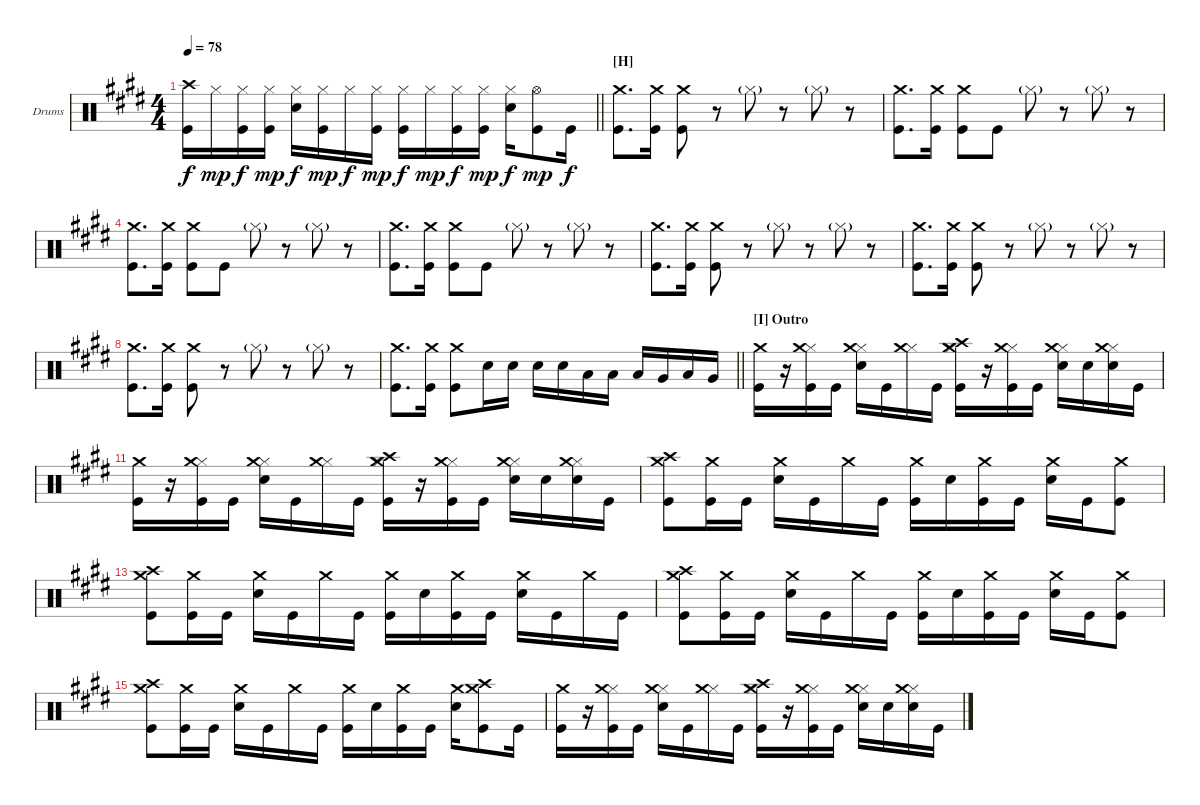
\bracketExtendMode nobrackets
\firstSystemTrackNameOrientation horizontal
\otherSystemsTrackNameOrientation horizontal
\defaultBarNumberDisplay FirstOfSystem
\track ("Drumkit" "Drums") {instrument percussion}
\staff {score}
\articulation defaults
\ts (4 4)
\tempo 78
\clef neutral
\barLineRight lightlight
\ks c#minor
("Crash high (hit)" "Kick (hit)").16{dy f} "Hi-Hat (closed)".16{dy mp} ("Hi-Hat (closed)" "Kick (hit)").16{dy f} ("Hi-Hat (closed)" "Kick (hit)").16{dy mp} ("Hi-Hat (closed)" "Snare (hit) 2").16{dy f} ("Hi-Hat (closed)" "Kick (hit)").16{dy mp} "Hi-Hat (closed)".16{dy f} ("Hi-Hat (closed)" "Kick (hit)").16{dy mp} ("Hi-Hat (closed)" "Kick (hit)").16{dy f} "Hi-Hat (closed)".16{dy mp} ("Hi-Hat (closed)" "Kick (hit)").16{dy f} ("Hi-Hat (closed)" "Kick (hit)").16{dy mp} ("Hi-Hat (closed)" "Snare (hit) 2").16{dy f} ("Hi-Hat (open)" "Kick (hit)").8{dy mp} "Kick (hit)".16{dy f} |
\section ("H" "")
("Crash medium (hit)" "Kick (hit)").8{d} ("Crash medium (hit)" "Kick (hit)").16 ("Crash medium (hit)" "Kick (hit)").8 r.8 "Hi-Hat (closed)"{g}.8 r.8 "Hi-Hat (closed)"{g}.8 r.8 |
("Crash medium (hit)" "Kick (hit)").8{d} ("Crash medium (hit)" "Kick (hit)").16 ("Crash medium (hit)" "Kick (hit)").8 "Kick (hit)".8 "Hi-Hat (closed)"{g}.8 r.8 "Hi-Hat (closed)"{g}.8 r.8 |
("Crash medium (hit)" "Kick (hit)").8{d} ("Crash medium (hit)" "Kick (hit)").16 ("Crash medium (hit)" "Kick (hit)").8 "Kick (hit)".8 "Hi-Hat (closed)"{g}.8 r.8 "Hi-Hat (closed)"{g}.8 r.8 |
("Crash medium (hit)" "Kick (hit)").8{d} ("Crash medium (hit)" "Kick (hit)").16 ("Crash medium (hit)" "Kick (hit)").8 "Kick (hit)".8 "Hi-Hat (closed)"{g}.8 r.8 "Hi-Hat (closed)"{g}.8 r.8 |
("Crash medium (hit)" "Kick (hit)").8{d} ("Crash medium (hit)" "Kick (hit)").16 ("Crash medium (hit)" "Kick (hit)").8 r.8 "Hi-Hat (closed)"{g}.8 r.8 "Hi-Hat (closed)"{g}.8 r.8 |
("Crash medium (hit)" "Kick (hit)").8{d} ("Crash medium (hit)" "Kick (hit)").16 ("Crash medium (hit)" "Kick (hit)").8 r.8 "Hi-Hat (closed)"{g}.8 r.8 "Hi-Hat (closed)"{g}.8 r.8 |
("Crash medium (hit)" "Kick (hit)").8{d} ("Crash medium (hit)" "Kick (hit)").16 ("Crash medium (hit)" "Kick (hit)").8 r.8 "Hi-Hat (closed)"{g}.8 r.8 "Hi-Hat (closed)"{g}.8 r.8 |
\barLineRight lightlight
("Crash medium (hit)" "Kick (hit)").8{d} ("Crash medium (hit)" "Kick (hit)").16 ("Crash medium (hit)" "Kick (hit)").8 "Snare (hit) 2".16 "Snare (hit) 2".16 "Snare (hit) 2".16 "Snare (hit) 2".16 "Low Tom (hit)".16 "Low Tom (hit)".16 "Low Tom (hit)".16 "Very Low Tom (hit)".16 "Low Tom (hit)".16 "Very Low Tom (hit)".16 |
\section ("I" "Outro")
("Crash medium (hit)" "Kick (hit)").16 r.16 ("Hi-Hat (closed)" "Kick (hit)" "Crash medium (hit)").16 "Kick (hit)".16 ("Hi-Hat (closed)" "Snare (hit) 2" "Crash medium (hit)").16 "Kick (hit)".16 ("Hi-Hat (closed)" "Crash medium (hit)").16 "Kick (hit)".16 ("Hi-Hat (closed)" "Kick (hit)" "Crash high (hit)" "Crash medium (hit)").16 r.16 ("Hi-Hat (closed)" "Kick (hit)" "Crash medium (hit)").16 "Kick (hit)".16 ("Hi-Hat (closed)" "Snare (hit) 2" "Crash medium (hit)").16 "Snare (hit) 2".16 ("Hi-Hat (closed)" "Snare (hit) 2" "Crash medium (hit)").16 "Kick (hit)".16 |
("Crash medium (hit)" "Kick (hit)").16 r.16 ("Hi-Hat (closed)" "Kick (hit)" "Crash medium (hit)").16 "Kick (hit)".16 ("Hi-Hat (closed)" "Snare (hit) 2" "Crash medium (hit)").16 "Kick (hit)".16 ("Hi-Hat (closed)" "Crash medium (hit)").16 "Kick (hit)".16 ("Hi-Hat (closed)" "Kick (hit)" "Crash high (hit)" "Crash medium (hit)").16 r.16 ("Hi-Hat (closed)" "Kick (hit)" "Crash medium (hit)").16 "Kick (hit)".16 ("Hi-Hat (closed)" "Snare (hit) 2" "Crash medium (hit)").16 "Snare (hit) 2".16 ("Hi-Hat (closed)" "Snare (hit) 2" "Crash medium (hit)").16 "Kick (hit)".16 |
("Crash medium (hit)" "Crash high (hit)" "Kick (hit)").8 ("Crash medium (hit)" "Kick (hit)").16 "Kick (hit)".16 ("Crash medium (hit)" "Snare (hit) 2").16 "Kick (hit)".16 "Crash medium (hit)".16 "Kick (hit)".16 ("Crash medium (hit)" "Kick (hit)").16 "Snare (hit) 2".16 ("Crash medium (hit)" "Kick (hit)").16 "Kick (hit)".16 ("Crash medium (hit)" "Snare (hit) 2").16 "Kick (hit)".16 ("Crash medium (hit)" "Kick (hit)").8 |
("Crash medium (hit)" "Crash high (hit)" "Kick (hit)").8 ("Crash medium (hit)" "Kick (hit)").16 "Kick (hit)".16 ("Crash medium (hit)" "Snare (hit) 2").16 "Kick (hit)".16 "Crash medium (hit)".16 "Kick (hit)".16 ("Crash medium (hit)" "Kick (hit)").16 "Snare (hit) 2".16 ("Crash medium (hit)" "Kick (hit)").16 "Kick (hit)".16 ("Crash medium (hit)" "Snare (hit) 2").16 "Kick (hit)".16 "Crash medium (hit)".16 "Kick (hit)".16 |
("Crash medium (hit)" "Crash high (hit)" "Kick (hit)").8 ("Crash medium (hit)" "Kick (hit)").16 "Kick (hit)".16 ("Crash medium (hit)" "Snare (hit) 2").16 "Kick (hit)".16 "Crash medium (hit)".16 "Kick (hit)".16 ("Crash medium (hit)" "Kick (hit)").16 "Snare (hit) 2".16 ("Crash medium (hit)" "Kick (hit)").16 "Kick (hit)".16 ("Crash medium (hit)" "Snare (hit) 2").16 "Kick (hit)".16 ("Crash medium (hit)" "Kick (hit)").8 |
("Crash medium (hit)" "Crash high (hit)" "Kick (hit)").8 ("Crash medium (hit)" "Kick (hit)").16 "Kick (hit)".16 ("Crash medium (hit)" "Snare (hit) 2").16 "Kick (hit)".16 "Crash medium (hit)".16 "Kick (hit)".16 ("Crash medium (hit)" "Kick (hit)").16 "Snare (hit) 2".16 ("Crash medium (hit)" "Kick (hit)").16 "Kick (hit)".16 ("Crash medium (hit)" "Snare (hit) 2").16 ("Crash medium (hit)" "Crash high (hit)" "Kick (hit)").8 "Kick (hit)".16 |
("Crash medium (hit)" "Kick (hit)").16 r.16 ("Hi-Hat (closed)" "Kick (hit)" "Crash medium (hit)").16 "Kick (hit)".16 ("Hi-Hat (closed)" "Snare (hit) 2" "Crash medium (hit)").16 "Kick (hit)".16 ("Hi-Hat (closed)" "Crash medium (hit)").16 "Kick (hit)".16 ("Hi-Hat (closed)" "Kick (hit)" "Crash high (hit)" "Crash medium (hit)").16 r.16 ("Hi-Hat (closed)" "Kick (hit)" "Crash medium (hit)").16 "Kick (hit)".16 ("Hi-Hat (closed)" "Snare (hit) 2" "Crash medium (hit)").16 "Snare (hit) 2".16 ("Hi-Hat (closed)" "Snare (hit) 2" "Crash medium (hit)").16 "Kick (hit)".16
